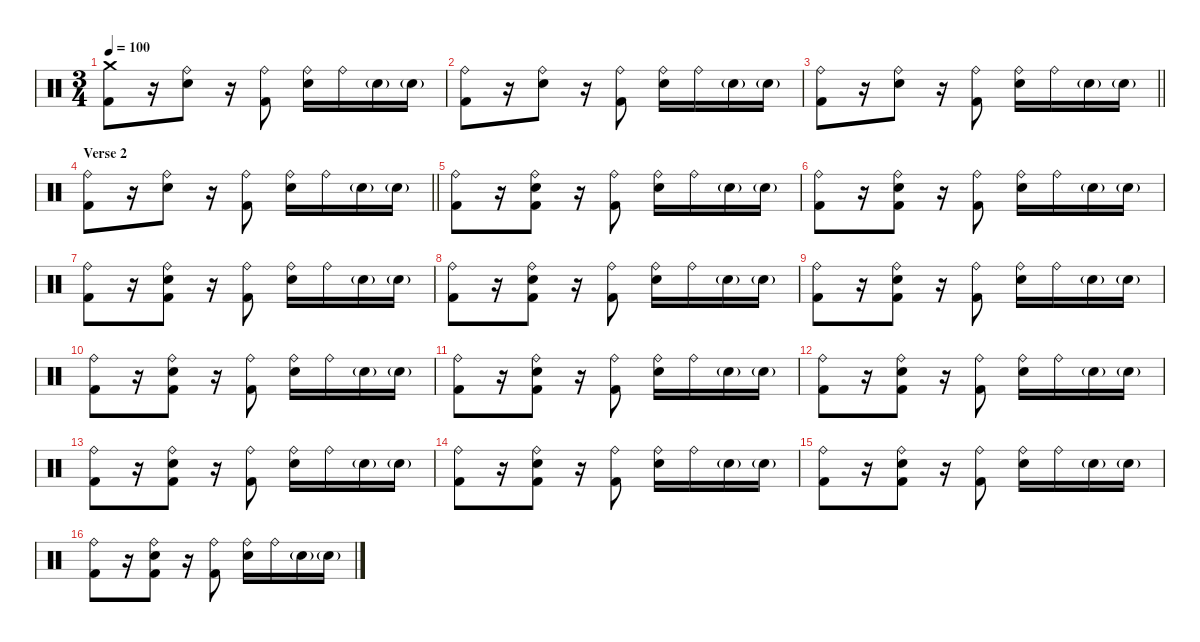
\defaultSystemsLayout 4
\hideDynamics
\bracketExtendMode nobrackets
\singleTrackTrackNamePolicy hidden
\multiTrackTrackNamePolicy hidden
\firstSystemTrackNameMode fullname
\firstSystemTrackNameOrientation horizontal
\otherSystemsTrackNameOrientation horizontal
\track ("Bill Ward - Drums" "drm.") {instrument percussion}
\staff {score}
\articulation defaults
\ts (3 4)
\tempo 100
\clef neutral
\ks c
("Crash medium (hit)" "Kick (hit) 2").8{dy f} r.16 ("Ride (bell)" "Snare (hit) 2").8 r.16 ("Ride (bell)" "Kick (hit) 2").8 ("Ride (bell)" "Snare (hit) 2").16 "Ride (bell)".16 "Snare (hit) 2"{g}.16{dy mf} "Snare (hit) 2"{g}.16 |
("Ride (bell)" "Kick (hit) 2").8{dy f} r.16 ("Ride (bell)" "Snare (hit) 2").8 r.16 ("Ride (bell)" "Kick (hit) 2").8 ("Ride (bell)" "Snare (hit) 2").16 "Ride (bell)".16 "Snare (hit) 2"{g}.16{dy mf} "Snare (hit) 2"{g}.16 |
\barLineRight lightlight
("Ride (bell)" "Kick (hit) 2").8{dy f} r.16 ("Ride (bell)" "Snare (hit) 2").8 r.16 ("Ride (bell)" "Kick (hit) 2").8 ("Ride (bell)" "Snare (hit) 2").16 "Ride (bell)".16 "Snare (hit) 2"{g}.16{dy mf} "Snare (hit) 2"{g}.16 |
\section ("" "Verse 2")
\barLineRight lightlight
("Ride (bell)" "Kick (hit) 2").8{dy f} r.16 ("Ride (bell)" "Snare (hit) 2").8 r.16 ("Ride (bell)" "Kick (hit) 2").8 ("Ride (bell)" "Snare (hit) 2").16 "Ride (bell)".16 "Snare (hit) 2"{g}.16{dy mf} "Snare (hit) 2"{g}.16 |
("Ride (bell)" "Kick (hit) 2").8{dy f} r.16 ("Ride (bell)" "Snare (hit) 2" "Kick (hit) 2").8 r.16 ("Ride (bell)" "Kick (hit) 2").8 ("Ride (bell)" "Snare (hit) 2").16 "Ride (bell)".16 "Snare (hit) 2"{g}.16{dy mf} "Snare (hit) 2"{g}.16 |
("Ride (bell)" "Kick (hit) 2").8{dy f} r.16 ("Ride (bell)" "Snare (hit) 2" "Kick (hit) 2").8 r.16 ("Ride (bell)" "Kick (hit) 2").8 ("Ride (bell)" "Snare (hit) 2").16 "Ride (bell)".16 "Snare (hit) 2"{g}.16{dy mf} "Snare (hit) 2"{g}.16 |
("Ride (bell)" "Kick (hit) 2").8{dy f} r.16 ("Ride (bell)" "Snare (hit) 2" "Kick (hit) 2").8 r.16 ("Ride (bell)" "Kick (hit) 2").8 ("Ride (bell)" "Snare (hit) 2").16 "Ride (bell)".16 "Snare (hit) 2"{g}.16{dy mf} "Snare (hit) 2"{g}.16 |
("Ride (bell)" "Kick (hit) 2").8{dy f} r.16 ("Ride (bell)" "Snare (hit) 2" "Kick (hit) 2").8 r.16 ("Ride (bell)" "Kick (hit) 2").8 ("Ride (bell)" "Snare (hit) 2").16 "Ride (bell)".16 "Snare (hit) 2"{g}.16{dy mf} "Snare (hit) 2"{g}.16 |
("Ride (bell)" "Kick (hit) 2").8{dy f} r.16 ("Ride (bell)" "Snare (hit) 2" "Kick (hit) 2").8 r.16 ("Ride (bell)" "Kick (hit) 2").8 ("Ride (bell)" "Snare (hit) 2").16 "Ride (bell)".16 "Snare (hit) 2"{g}.16{dy mf} "Snare (hit) 2"{g}.16 |
("Ride (bell)" "Kick (hit) 2").8{dy f} r.16 ("Ride (bell)" "Snare (hit) 2" "Kick (hit) 2").8 r.16 ("Ride (bell)" "Kick (hit) 2").8 ("Ride (bell)" "Snare (hit) 2").16 "Ride (bell)".16 "Snare (hit) 2"{g}.16{dy mf} "Snare (hit) 2"{g}.16 |
("Ride (bell)" "Kick (hit) 2").8{dy f} r.16 ("Ride (bell)" "Snare (hit) 2" "Kick (hit) 2").8 r.16 ("Ride (bell)" "Kick (hit) 2").8 ("Ride (bell)" "Snare (hit) 2").16 "Ride (bell)".16 "Snare (hit) 2"{g}.16{dy mf} "Snare (hit) 2"{g}.16 |
("Ride (bell)" "Kick (hit) 2").8{dy f} r.16 ("Ride (bell)" "Snare (hit) 2" "Kick (hit) 2").8 r.16 ("Ride (bell)" "Kick (hit) 2").8 ("Ride (bell)" "Snare (hit) 2").16 "Ride (bell)".16 "Snare (hit) 2"{g}.16{dy mf} "Snare (hit) 2"{g}.16 |
("Ride (bell)" "Kick (hit) 2").8{dy f} r.16 ("Ride (bell)" "Snare (hit) 2" "Kick (hit) 2").8 r.16 ("Ride (bell)" "Kick (hit) 2").8 ("Ride (bell)" "Snare (hit) 2").16 "Ride (bell)".16 "Snare (hit) 2"{g}.16{dy mf} "Snare (hit) 2"{g}.16 |
("Ride (bell)" "Kick (hit) 2").8{dy f} r.16 ("Ride (bell)" "Snare (hit) 2" "Kick (hit) 2").8 r.16 ("Ride (bell)" "Kick (hit) 2").8 ("Ride (bell)" "Snare (hit) 2").16 "Ride (bell)".16 "Snare (hit) 2"{g}.16{dy mf} "Snare (hit) 2"{g}.16 |
("Ride (bell)" "Kick (hit) 2").8{dy f} r.16 ("Ride (bell)" "Snare (hit) 2" "Kick (hit) 2").8 r.16 ("Ride (bell)" "Kick (hit) 2").8 ("Ride (bell)" "Snare (hit) 2").16 "Ride (bell)".16 "Snare (hit) 2"{g}.16{dy mf} "Snare (hit) 2"{g}.16 |
("Ride (bell)" "Kick (hit) 2").8{dy f} r.16 ("Ride (bell)" "Snare (hit) 2" "Kick (hit) 2").8 r.16 ("Ride (bell)" "Kick (hit) 2").8 ("Ride (bell)" "Snare (hit) 2").16 "Ride (bell)".16 "Snare (hit) 2"{g}.16{dy mf} "Snare (hit) 2"{g}.16
